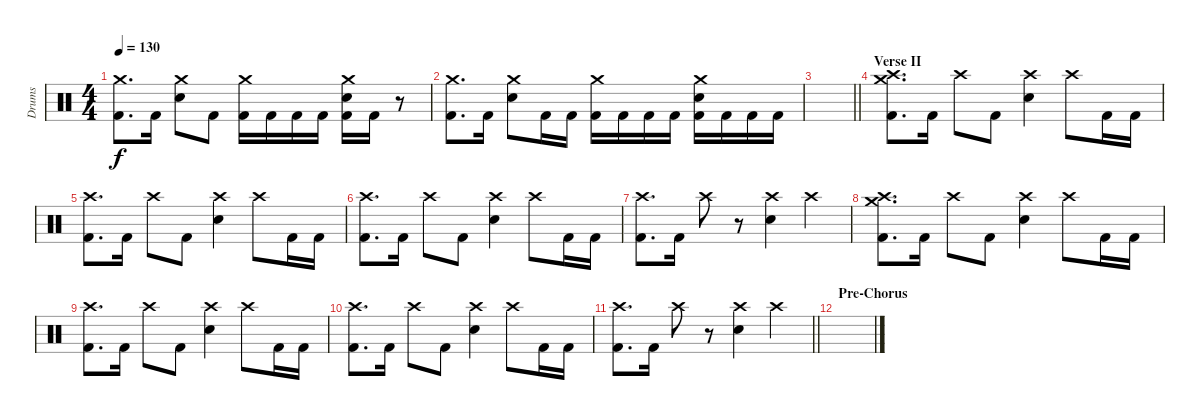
\track ("Drums" "Drums") {instrument percussion}
\staff {score}
\articulation defaults
\ts (4 4)
\tempo 130
\clef neutral
\ks c
("Crash medium (hit)" "Kick (hit) 2").8{d dy f} "Kick (hit) 2".16 ("Crash medium (hit)" "Electric Snare (hit)").8 "Kick (hit) 2".8 ("Crash medium (hit)" "Kick (hit) 2").16 "Kick (hit) 2".16 "Kick (hit) 2".16 "Kick (hit) 2".16 ("Crash medium (hit)" "Electric Snare (hit)" "Kick (hit) 2").16 "Kick (hit) 2".16 r.8 |
("Crash medium (hit)" "Kick (hit) 2").8{d} "Kick (hit) 2".16 ("Crash medium (hit)" "Electric Snare (hit)").8 "Kick (hit) 2".16 "Kick (hit) 2".16 ("Crash medium (hit)" "Kick (hit) 2").16 "Kick (hit) 2".16 "Kick (hit) 2".16 "Kick (hit) 2".16 ("Crash medium (hit)" "Electric Snare (hit)" "Kick (hit) 2").16 "Kick (hit) 2".16 "Kick (hit) 2".16 "Kick (hit) 2".16 |
\barLineRight lightlight
|
\section ("" "Verse II")
("Crash high (hit)" "Crash medium (hit)" "Kick (hit) 2").8{d} "Kick (hit) 2".16 "Crash high (hit)".8 "Kick (hit) 2".8 ("Crash high (hit)" "Electric Snare (hit)").4 "Crash high (hit)".8 "Kick (hit) 2".16 "Kick (hit) 2".16 |
("Crash high (hit)" "Kick (hit) 2").8{d} "Kick (hit) 2".16 "Crash high (hit)".8 "Kick (hit) 2".8 ("Crash high (hit)" "Electric Snare (hit)").4 "Crash high (hit)".8 "Kick (hit) 2".16 "Kick (hit) 2".16 |
("Crash high (hit)" "Kick (hit) 2").8{d} "Kick (hit) 2".16 "Crash high (hit)".8 "Kick (hit) 2".8 ("Crash high (hit)" "Electric Snare (hit)").4 "Crash high (hit)".8 "Kick (hit) 2".16 "Kick (hit) 2".16 |
("Crash high (hit)" "Kick (hit) 2").8{d} "Kick (hit) 2".16 "Crash high (hit)".8 r.8 ("Crash high (hit)" "Electric Snare (hit)").4 "Crash high (hit)".4 |
("Crash high (hit)" "Crash medium (hit)" "Kick (hit) 2").8{d} "Kick (hit) 2".16 "Crash high (hit)".8 "Kick (hit) 2".8 ("Crash high (hit)" "Electric Snare (hit)").4 "Crash high (hit)".8 "Kick (hit) 2".16 "Kick (hit) 2".16 |
("Crash high (hit)" "Kick (hit) 2").8{d} "Kick (hit) 2".16 "Crash high (hit)".8 "Kick (hit) 2".8 ("Crash high (hit)" "Electric Snare (hit)").4 "Crash high (hit)".8 "Kick (hit) 2".16 "Kick (hit) 2".16 |
("Crash high (hit)" "Kick (hit) 2").8{d} "Kick (hit) 2".16 "Crash high (hit)".8 "Kick (hit) 2".8 ("Crash high (hit)" "Electric Snare (hit)").4 "Crash high (hit)".8 "Kick (hit) 2".16 "Kick (hit) 2".16 |
\barLineRight lightlight
("Crash high (hit)" "Kick (hit) 2").8{d} "Kick (hit) 2".16 "Crash high (hit)".8 r.8 ("Crash high (hit)" "Electric Snare (hit)").4 "Crash high (hit)".4 |
\section ("" "Pre-Chorus")
